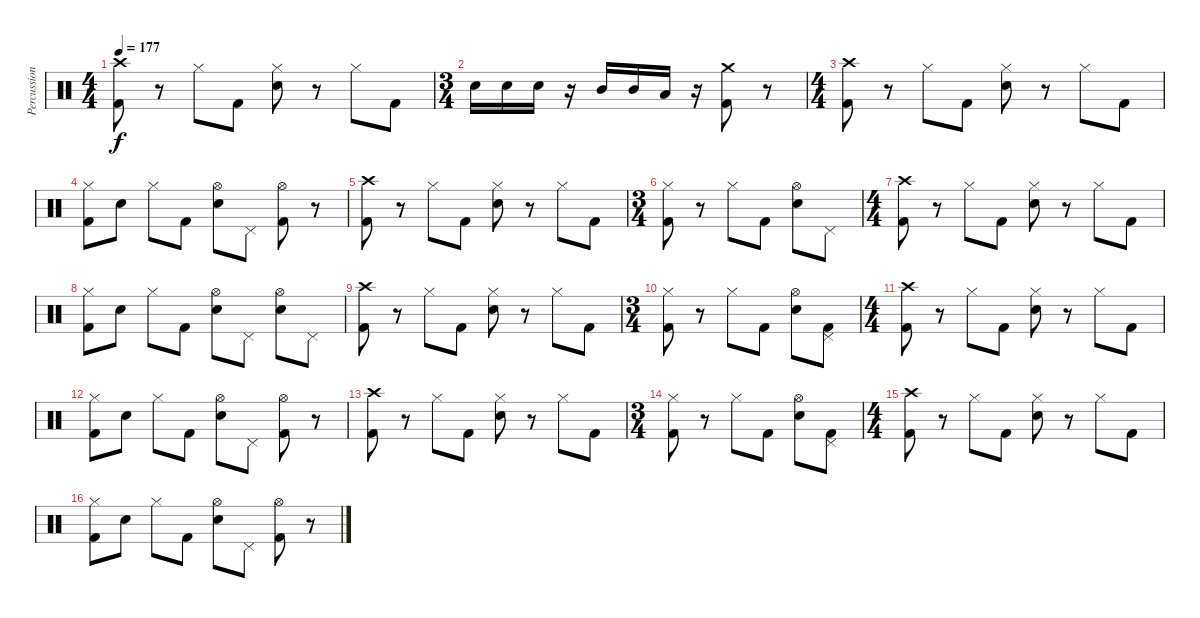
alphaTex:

\track ("Percussion" "Percussion") {instrument percussion}
\staff {score}
\articulation defaults
\ts (4 4)
\tempo 177
\clef neutral
\ks c
("Crash high (hit)" "Kick (hit) 2").8{dy f} r.8 "Hi-Hat (closed)".8 "Kick (hit) 2".8 ("Hi-Hat (closed)" "Electric Snare (hit)").8 r.8 "Hi-Hat (closed)".8 "Kick (hit) 2".8 |
\ts (3 4)
"Electric Snare (hit)".16 "Electric Snare (hit)".16 "Electric Snare (hit)".16 r.16 "Mid Tom (hit)".16 "Mid Tom (hit)".16 "Low Tom (hit)".16 r.16 ("Crash medium (hit)" "Kick (hit) 2").8 r.8 |
\ts (4 4)
("Crash high (hit)" "Kick (hit) 2").8 r.8 "Hi-Hat (closed)".8 "Kick (hit) 2".8 ("Hi-Hat (closed)" "Electric Snare (hit)").8 r.8 "Hi-Hat (closed)".8 "Kick (hit) 2".8 |
("Hi-Hat (closed)" "Kick (hit) 2").8 "Electric Snare (hit)".8 "Hi-Hat (closed)".8 "Kick (hit) 2".8 ("Hi-Hat (open)" "Electric Snare (hit)").8 "Pedal Hi-Hat (hit)".8 ("Hi-Hat (open)" "Kick (hit) 2").8 r.8 |
("Crash high (hit)" "Kick (hit) 2").8 r.8 "Hi-Hat (closed)".8 "Kick (hit) 2".8 ("Hi-Hat (closed)" "Electric Snare (hit)").8 r.8 "Hi-Hat (closed)".8 "Kick (hit) 2".8 |
\ts (3 4)
("Hi-Hat (closed)" "Kick (hit) 2").8 r.8 "Hi-Hat (closed)".8 "Kick (hit) 2".8 ("Hi-Hat (open)" "Electric Snare (hit)").8 "Pedal Hi-Hat (hit)".8 |
\ts (4 4)
("Crash high (hit)" "Kick (hit) 2").8 r.8 "Hi-Hat (closed)".8 "Kick (hit) 2".8 ("Hi-Hat (closed)" "Electric Snare (hit)").8 r.8 "Hi-Hat (closed)".8 "Kick (hit) 2".8 |
("Hi-Hat (closed)" "Kick (hit) 2").8 "Electric Snare (hit)".8 "Hi-Hat (closed)".8 "Kick (hit) 2".8 ("Hi-Hat (open)" "Electric Snare (hit)").8 "Pedal Hi-Hat (hit)".8 ("Hi-Hat (open)" "Electric Snare (hit)").8 "Pedal Hi-Hat (hit)".8 |
("Crash high (hit)" "Kick (hit) 2").8 r.8 "Hi-Hat (closed)".8 "Kick (hit) 2".8 ("Hi-Hat (closed)" "Electric Snare (hit)").8 r.8 "Hi-Hat (closed)".8 "Kick (hit) 2".8 |
\ts (3 4)
("Hi-Hat (closed)" "Kick (hit) 2").8 r.8 "Hi-Hat (closed)".8 "Kick (hit) 2".8 ("Hi-Hat (open)" "Electric Snare (hit)").8 ("Pedal Hi-Hat (hit)" "Kick (hit) 2").8 |
\ts (4 4)
("Crash high (hit)" "Kick (hit) 2").8 r.8 "Hi-Hat (closed)".8 "Kick (hit) 2".8 ("Hi-Hat (closed)" "Electric Snare (hit)").8 r.8 "Hi-Hat (closed)".8 "Kick (hit) 2".8 |
("Hi-Hat (closed)" "Kick (hit) 2").8 "Electric Snare (hit)".8 "Hi-Hat (closed)".8 "Kick (hit) 2".8 ("Hi-Hat (open)" "Electric Snare (hit)").8 "Pedal Hi-Hat (hit)".8 ("Hi-Hat (open)" "Kick (hit) 2").8 r.8 |
("Crash high (hit)" "Kick (hit) 2").8 r.8 "Hi-Hat (closed)".8 "Kick (hit) 2".8 ("Hi-Hat (closed)" "Electric Snare (hit)").8 r.8 "Hi-Hat (closed)".8 "Kick (hit) 2".8 |
\ts (3 4)
("Hi-Hat (closed)" "Kick (hit) 2").8 r.8 "Hi-Hat (closed)".8 "Kick (hit) 2".8 ("Hi-Hat (open)" "Electric Snare (hit)").8 ("Pedal Hi-Hat (hit)" "Kick (hit) 2").8 |
\ts (4 4)
("Crash high (hit)" "Kick (hit) 2").8 r.8 "Hi-Hat (closed)".8 "Kick (hit) 2".8 ("Hi-Hat (closed)" "Electric Snare (hit)").8 r.8 "Hi-Hat (closed)".8 "Kick (hit) 2".8 |
("Hi-Hat (closed)" "Kick (hit) 2").8 "Electric Snare (hit)".8 "Hi-Hat (closed)".8 "Kick (hit) 2".8 ("Hi-Hat (open)" "Electric Snare (hit)").8 "Pedal Hi-Hat (hit)".8 ("Hi-Hat (open)" "Kick (hit) 2").8 r.8
